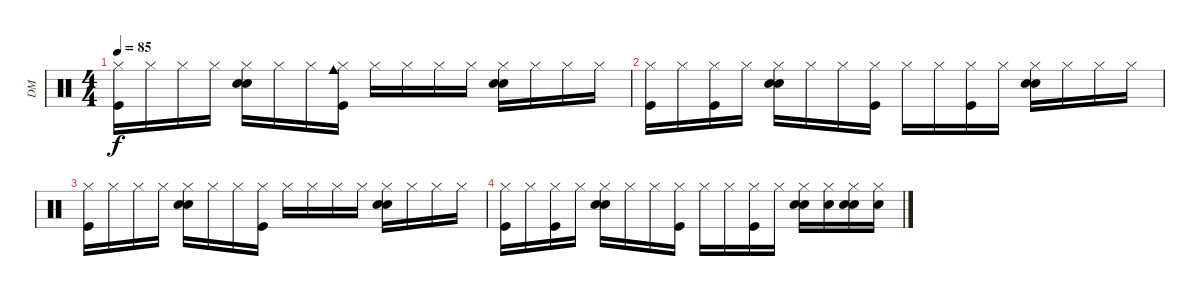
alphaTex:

\track ("DM" "DM") {instrument percussion}
\staff {score}
\articulation defaults
\ts (4 4)
\tempo 85
\clef neutral
\ks c
("Hi-Hat (closed)" "Kick (hit)").16{dy f} "Hi-Hat (closed)".16 "Hi-Hat (closed)".16 "Hi-Hat (closed)".16 ("Hi-Hat (closed)" "Electric Snare (hit)" "Hand Clap (hit)").16 "Hi-Hat (closed)".16 "Hi-Hat (closed)".16 ("Hi-Hat (closed)" "Kick (hit)" "Cowbell medium (hit)").16 "Hi-Hat (closed)".16 "Hi-Hat (closed)".16 "Hi-Hat (closed)".16 "Hi-Hat (closed)".16 ("Hi-Hat (closed)" "Electric Snare (hit)" "Hand Clap (hit)").16 "Hi-Hat (closed)".16 "Hi-Hat (closed)".16 "Hi-Hat (closed)".16 |
("Hi-Hat (closed)" "Kick (hit)").16 "Hi-Hat (closed)".16 ("Hi-Hat (closed)" "Kick (hit)").16 "Hi-Hat (closed)".16 ("Hi-Hat (closed)" "Electric Snare (hit)" "Hand Clap (hit)").16 "Hi-Hat (closed)".16 "Hi-Hat (closed)".16 ("Hi-Hat (closed)" "Kick (hit)").16 "Hi-Hat (closed)".16 "Hi-Hat (closed)".16 ("Hi-Hat (closed)" "Kick (hit)").16 "Hi-Hat (closed)".16 ("Hi-Hat (closed)" "Electric Snare (hit)" "Hand Clap (hit)").16 "Hi-Hat (closed)".16 "Hi-Hat (closed)".16 "Hi-Hat (closed)".16 |
("Hi-Hat (closed)" "Kick (hit)").16 "Hi-Hat (closed)".16 "Hi-Hat (closed)".16 "Hi-Hat (closed)".16 ("Hi-Hat (closed)" "Electric Snare (hit)" "Hand Clap (hit)").16 "Hi-Hat (closed)".16 "Hi-Hat (closed)".16 ("Hi-Hat (closed)" "Kick (hit)").16 "Hi-Hat (closed)".16 "Hi-Hat (closed)".16 "Hi-Hat (closed)".16 "Hi-Hat (closed)".16 ("Hi-Hat (closed)" "Electric Snare (hit)" "Hand Clap (hit)").16 "Hi-Hat (closed)".16 "Hi-Hat (closed)".16 "Hi-Hat (closed)".16 |
("Hi-Hat (closed)" "Kick (hit)").16 "Hi-Hat (closed)".16 ("Hi-Hat (closed)" "Kick (hit)").16 "Hi-Hat (closed)".16 ("Hi-Hat (closed)" "Electric Snare (hit)" "Hand Clap (hit)").16 "Hi-Hat (closed)".16 "Hi-Hat (closed)".16 ("Hi-Hat (closed)" "Kick (hit)").16 "Hi-Hat (closed)".16 "Hi-Hat (closed)".16 ("Hi-Hat (closed)" "Kick (hit)").16 "Hi-Hat (closed)".16 ("Hi-Hat (closed)" "Electric Snare (hit)" "Hand Clap (hit)").16 ("Hi-Hat (closed)" "Hand Clap (hit)").16 ("Hi-Hat (closed)" "Hand Clap (hit)" "Hand Clap (hit)").16 ("Hi-Hat (closed)" "Hand Clap (hit)").16
